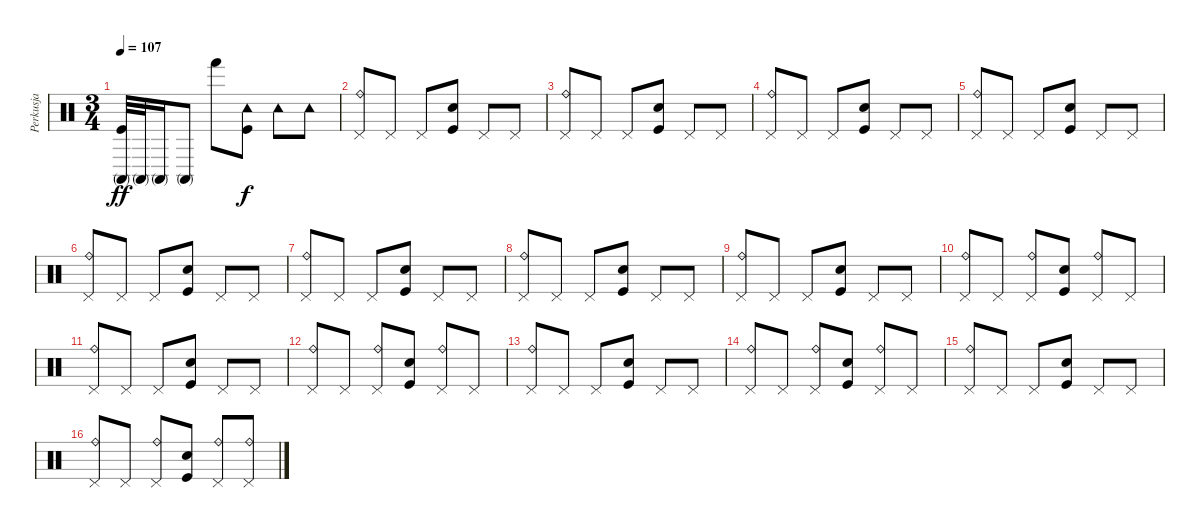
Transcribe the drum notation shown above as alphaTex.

\track ("Perkusja" "Perkusja") {instrument percussion}
\staff {score}
\articulation defaults
\ts (3 4)
\tempo 107
\clef neutral
\ks c
("Conga high (mute)" "Kick (hit)").32{dy ff} "Conga high (mute)".32 "Conga high (mute)".16 "Conga high (mute)".8 "Hand (hit)".8 ("Tambourine (hit)" "Kick (hit)").8{dy f} "Tambourine (hit)".8 "Tambourine (hit)".8 |
("Pedal Hi-Hat (hit)" "Ride (bell)").8 "Pedal Hi-Hat (hit)".8 "Pedal Hi-Hat (hit)".8 ("Electric Snare (hit)" "Kick (hit)").8 "Pedal Hi-Hat (hit)".8 "Pedal Hi-Hat (hit)".8 |
("Pedal Hi-Hat (hit)" "Ride (bell)").8 "Pedal Hi-Hat (hit)".8 "Pedal Hi-Hat (hit)".8 ("Electric Snare (hit)" "Kick (hit)").8 "Pedal Hi-Hat (hit)".8 "Pedal Hi-Hat (hit)".8 |
("Pedal Hi-Hat (hit)" "Ride (bell)").8 "Pedal Hi-Hat (hit)".8 "Pedal Hi-Hat (hit)".8 ("Electric Snare (hit)" "Kick (hit)").8 "Pedal Hi-Hat (hit)".8 "Pedal Hi-Hat (hit)".8 |
("Pedal Hi-Hat (hit)" "Ride (bell)").8 "Pedal Hi-Hat (hit)".8 "Pedal Hi-Hat (hit)".8 ("Electric Snare (hit)" "Kick (hit)").8 "Pedal Hi-Hat (hit)".8 "Pedal Hi-Hat (hit)".8 |
("Pedal Hi-Hat (hit)" "Ride (bell)").8 "Pedal Hi-Hat (hit)".8 "Pedal Hi-Hat (hit)".8 ("Electric Snare (hit)" "Kick (hit)").8 "Pedal Hi-Hat (hit)".8 "Pedal Hi-Hat (hit)".8 |
("Pedal Hi-Hat (hit)" "Ride (bell)").8 "Pedal Hi-Hat (hit)".8 "Pedal Hi-Hat (hit)".8 ("Electric Snare (hit)" "Kick (hit)").8 "Pedal Hi-Hat (hit)".8 "Pedal Hi-Hat (hit)".8 |
("Pedal Hi-Hat (hit)" "Ride (bell)").8 "Pedal Hi-Hat (hit)".8 "Pedal Hi-Hat (hit)".8 ("Electric Snare (hit)" "Kick (hit)").8 "Pedal Hi-Hat (hit)".8 "Pedal Hi-Hat (hit)".8 |
("Pedal Hi-Hat (hit)" "Ride (bell)").8 "Pedal Hi-Hat (hit)".8 "Pedal Hi-Hat (hit)".8 ("Electric Snare (hit)" "Kick (hit)").8 "Pedal Hi-Hat (hit)".8 "Pedal Hi-Hat (hit)".8 |
("Pedal Hi-Hat (hit)" "Ride (bell)").8 "Pedal Hi-Hat (hit)".8 ("Pedal Hi-Hat (hit)" "Ride (bell)").8 ("Electric Snare (hit)" "Kick (hit)").8 ("Pedal Hi-Hat (hit)" "Ride (bell)").8 "Pedal Hi-Hat (hit)".8 |
("Pedal Hi-Hat (hit)" "Ride (bell)").8 "Pedal Hi-Hat (hit)".8 "Pedal Hi-Hat (hit)".8 ("Electric Snare (hit)" "Kick (hit)").8 "Pedal Hi-Hat (hit)".8 "Pedal Hi-Hat (hit)".8 |
("Pedal Hi-Hat (hit)" "Ride (bell)").8 "Pedal Hi-Hat (hit)".8 ("Pedal Hi-Hat (hit)" "Ride (bell)").8 ("Electric Snare (hit)" "Kick (hit)").8 ("Pedal Hi-Hat (hit)" "Ride (bell)").8 "Pedal Hi-Hat (hit)".8 |
("Pedal Hi-Hat (hit)" "Ride (bell)").8 "Pedal Hi-Hat (hit)".8 "Pedal Hi-Hat (hit)".8 ("Electric Snare (hit)" "Kick (hit)").8 "Pedal Hi-Hat (hit)".8 "Pedal Hi-Hat (hit)".8 |
("Pedal Hi-Hat (hit)" "Ride (bell)").8 "Pedal Hi-Hat (hit)".8 ("Pedal Hi-Hat (hit)" "Ride (bell)").8 ("Electric Snare (hit)" "Kick (hit)").8 ("Pedal Hi-Hat (hit)" "Ride (bell)").8 "Pedal Hi-Hat (hit)".8 |
("Pedal Hi-Hat (hit)" "Ride (bell)").8 "Pedal Hi-Hat (hit)".8 "Pedal Hi-Hat (hit)".8 ("Electric Snare (hit)" "Kick (hit)").8 "Pedal Hi-Hat (hit)".8 "Pedal Hi-Hat (hit)".8 |
("Pedal Hi-Hat (hit)" "Ride (bell)").8 "Pedal Hi-Hat (hit)".8 ("Pedal Hi-Hat (hit)" "Ride (bell)").8 ("Electric Snare (hit)" "Kick (hit)").8 ("Pedal Hi-Hat (hit)" "Ride (bell)").8 ("Pedal Hi-Hat (hit)" "Ride (bell)").8
